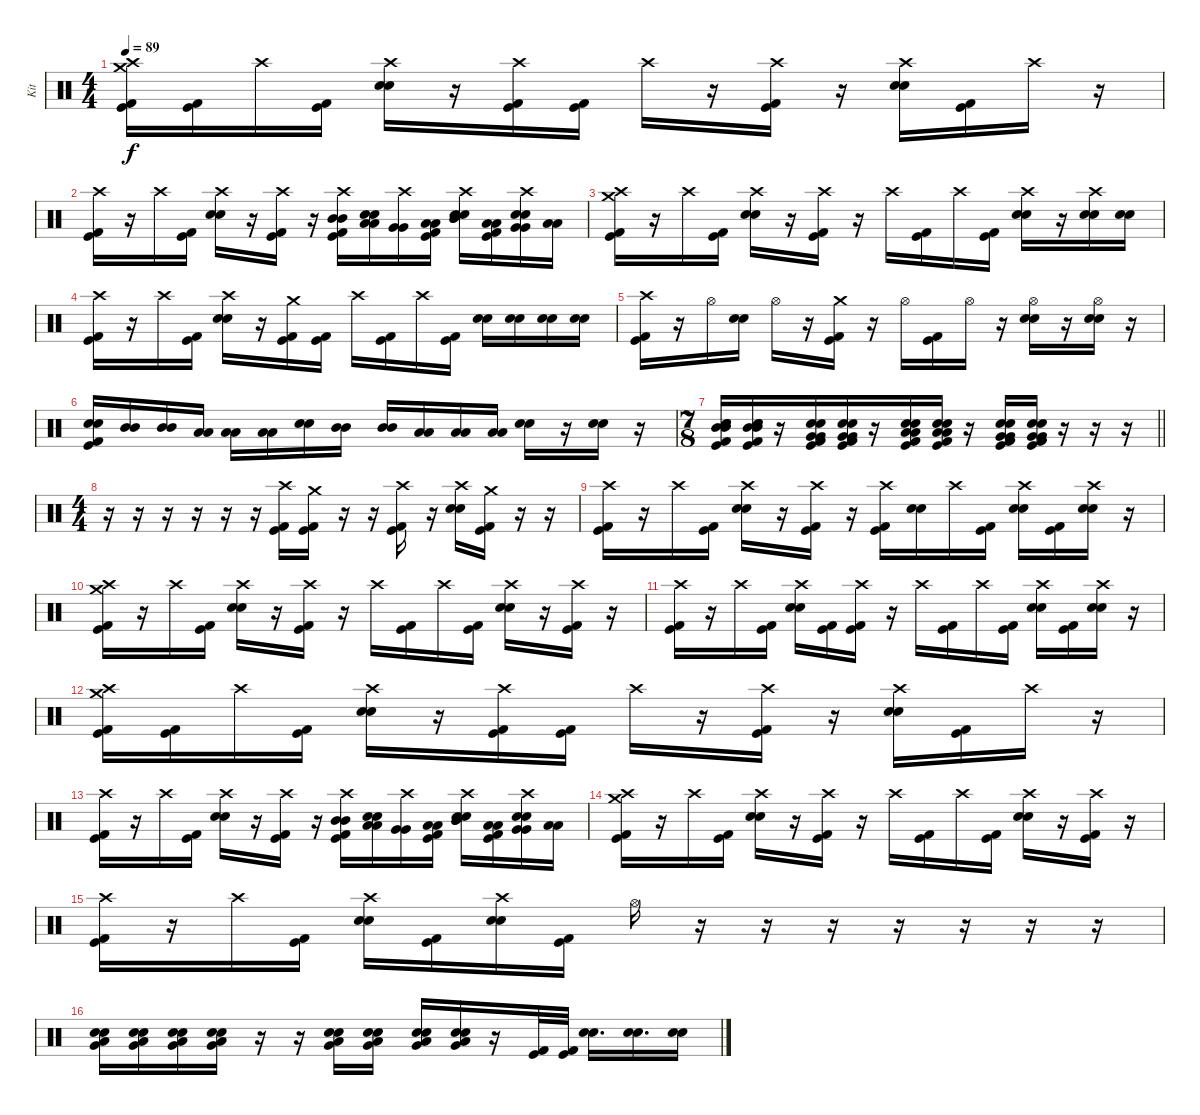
\track ("Kit" "Kit") {instrument percussion}
\staff {score}
\articulation defaults
\ts (4 4)
\tempo 89
\clef neutral
\ks c
("Crash high (hit)" "Crash medium (hit)" "Kick (hit) 2" "Kick (hit)").16{dy f} ("Kick (hit) 2" "Kick (hit)").16 "Crash high (hit)".16 ("Kick (hit) 2" "Kick (hit)").16 ("Crash high (hit)" "Electric Snare (hit)" "Snare (hit) 2").16 r.16 ("Crash high (hit)" "Kick (hit) 2" "Kick (hit)").16 ("Kick (hit) 2" "Kick (hit)").16 "Crash high (hit)".16 r.16 ("Crash high (hit)" "Kick (hit) 2" "Kick (hit)").16 r.16 ("Crash high (hit)" "Snare (hit) 2" "Electric Snare (hit)").16 ("Kick (hit) 2" "Kick (hit)").16 "Crash high (hit)".16 r.16 |
("Crash high (hit)" "Kick (hit) 2" "Kick (hit)").16 r.16 "Crash high (hit)".16 ("Kick (hit) 2" "Kick (hit)").16 ("Crash high (hit)" "Electric Snare (hit)" "Snare (hit) 2").16 r.16 ("Crash high (hit)" "Kick (hit) 2" "Kick (hit)").16 r.16 ("Crash high (hit)" "Mid Tom (hit)" "Mid Tom (hit)" "Kick (hit) 2" "Kick (hit)").16 ("Low Tom (hit)" "Low Tom (hit)" "Electric Snare (hit)" "Snare (hit) 2").16 ("Crash high (hit)" "Very Low Tom (hit)" "Very Low Tom (hit)").16 ("Low Floor Tom (hit)" "Low Floor Tom (hit)" "Kick (hit) 2" "Kick (hit)").16 ("Crash high (hit)" "Mid Tom (hit)" "Mid Tom (hit)" "Snare (hit) 2" "Electric Snare (hit)").16 ("Low Tom (hit)" "Low Tom (hit)" "Kick (hit) 2" "Kick (hit)").16 ("Crash high (hit)" "Very Low Tom (hit)" "Very Low Tom (hit)" "Electric Snare (hit)" "Snare (hit) 2").16 ("Low Floor Tom (hit)" "Low Floor Tom (hit)").16 |
("Crash high (hit)" "Crash medium (hit)" "Kick (hit) 2" "Kick (hit)").16 r.16 "Crash high (hit)".16 ("Kick (hit) 2" "Kick (hit)").16 ("Crash high (hit)" "Electric Snare (hit)" "Snare (hit) 2").16 r.16 ("Crash high (hit)" "Kick (hit) 2" "Kick (hit)").16 r.16 "Crash high (hit)".16 ("Kick (hit) 2" "Kick (hit)").16 "Crash high (hit)".16 ("Kick (hit) 2" "Kick (hit)").16 ("Crash high (hit)" "Snare (hit) 2" "Electric Snare (hit)").16 r.16 ("Crash high (hit)" "Snare (hit) 2" "Electric Snare (hit)").16 ("Snare (hit) 2" "Electric Snare (hit)").16 |
("Crash high (hit)" "Kick (hit) 2" "Kick (hit)").16 r.16 "Crash high (hit)".16 ("Kick (hit) 2" "Kick (hit)").16 ("Crash high (hit)" "Electric Snare (hit)" "Snare (hit) 2").16 r.16 ("Crash medium (hit)" "Kick (hit) 2" "Kick (hit)").16 ("Kick (hit) 2" "Kick (hit)").16 "Crash high (hit)".16 ("Kick (hit) 2" "Kick (hit)").16 "Crash high (hit)".16 ("Kick (hit) 2" "Kick (hit)").16 ("Snare (hit) 2" "Electric Snare (hit)").16 ("Snare (hit) 2" "Electric Snare (hit)").16 ("Snare (hit) 2" "Electric Snare (hit)").16 ("Snare (hit) 2" "Electric Snare (hit)").16 |
("Crash high (hit)" "Kick (hit) 2" "Kick (hit)").16 r.16 "Hi-Hat (open)".16 ("Snare (hit) 2" "Electric Snare (hit)").16 "Hi-Hat (open)".16 r.16 ("Crash medium (hit)" "Kick (hit) 2" "Kick (hit)").16 r.16 "Hi-Hat (open)".16 ("Kick (hit) 2" "Kick (hit)").16 "Hi-Hat (open)".16 r.16 ("Hi-Hat (open)" "Snare (hit) 2" "Electric Snare (hit)").16 r.16 ("Hi-Hat (open)" "Snare (hit) 2" "Electric Snare (hit)").16 r.16 |
("Electric Snare (hit)" "Snare (hit) 2" "Kick (hit) 2" "Kick (hit)").16 ("Mid Tom (hit)" "Mid Tom (hit)").16 ("Mid Tom (hit)" "Mid Tom (hit)").16 ("Low Tom (hit)" "Low Tom (hit)").16 ("Low Tom (hit)" "Low Tom (hit)").16 ("Low Tom (hit)" "Low Tom (hit)").16 ("Electric Snare (hit)" "Snare (hit) 2").16 ("Mid Tom (hit)" "Mid Tom (hit)").16 ("Mid Tom (hit)" "Mid Tom (hit)").16 ("Low Tom (hit)" "Low Tom (hit)").16 ("Low Tom (hit)" "Low Tom (hit)").16 ("Low Tom (hit)" "Low Tom (hit)").16 ("Snare (hit) 2" "Electric Snare (hit)").16 r.16 ("Snare (hit) 2" "Electric Snare (hit)").16 r.16 |
\ts (7 8)
\barLineRight lightlight
("Mid Tom (hit)" "Mid Tom (hit)" "Electric Snare (hit)" "Snare (hit) 2" "Kick (hit) 2" "Kick (hit)").16 ("Mid Tom (hit)" "Mid Tom (hit)" "Electric Snare (hit)" "Snare (hit) 2" "Kick (hit) 2" "Kick (hit)").16 r.16 ("Very Low Tom (hit)" "Very Low Tom (hit)" "Electric Snare (hit)" "Snare (hit) 2" "Kick (hit) 2" "Kick (hit)").16 ("Very Low Tom (hit)" "Very Low Tom (hit)" "Electric Snare (hit)" "Snare (hit) 2" "Kick (hit) 2" "Kick (hit)").16 r.16 ("Low Tom (hit)" "Low Tom (hit)" "Electric Snare (hit)" "Snare (hit) 2" "Kick (hit) 2" "Kick (hit)").16 ("Low Tom (hit)" "Low Tom (hit)" "Electric Snare (hit)" "Snare (hit) 2" "Kick (hit) 2" "Kick (hit)").16 r.16 ("Very Low Tom (hit)" "Very Low Tom (hit)" "Electric Snare (hit)" "Snare (hit) 2" "Kick (hit) 2" "Kick (hit)").16 ("Very Low Tom (hit)" "Very Low Tom (hit)" "Electric Snare (hit)" "Snare (hit) 2" "Kick (hit) 2" "Kick (hit)").16 r.16 r.16 r.16 |
\ts (4 4)
r.16 r.16 r.16 r.16 r.16 r.16 ("Crash high (hit)" "Kick (hit) 2" "Kick (hit)").16 ("Crash medium (hit)" "Kick (hit) 2" "Kick (hit)").16 r.16 r.16 ("Crash high (hit)" "Kick (hit) 2" "Kick (hit)").16 r.16 ("Crash high (hit)" "Snare (hit) 2" "Electric Snare (hit)").16 ("Crash medium (hit)" "Kick (hit) 2" "Kick (hit)").16 r.16 r.16 |
("Crash high (hit)" "Kick (hit) 2" "Kick (hit)").16 r.16 "Crash high (hit)".16 ("Kick (hit) 2" "Kick (hit)").16 ("Crash high (hit)" "Electric Snare (hit)" "Snare (hit) 2").16 r.16 ("Crash high (hit)" "Kick (hit) 2" "Kick (hit)").16 r.16 ("Crash high (hit)" "Kick (hit) 2" "Kick (hit)").16 ("Electric Snare (hit)" "Snare (hit) 2").16 "Crash high (hit)".16 ("Kick (hit) 2" "Kick (hit)").16 ("Crash high (hit)" "Snare (hit) 2" "Electric Snare (hit)").16 ("Kick (hit) 2" "Kick (hit)").16 ("Crash high (hit)" "Electric Snare (hit)" "Snare (hit) 2").16 r.16 |
("Crash high (hit)" "Crash medium (hit)" "Kick (hit) 2" "Kick (hit)").16 r.16 "Crash high (hit)".16 ("Kick (hit) 2" "Kick (hit)").16 ("Crash high (hit)" "Electric Snare (hit)" "Snare (hit) 2").16 r.16 ("Crash high (hit)" "Kick (hit) 2" "Kick (hit)").16 r.16 "Crash high (hit)".16 ("Kick (hit) 2" "Kick (hit)").16 "Crash high (hit)".16 ("Kick (hit) 2" "Kick (hit)").16 ("Crash high (hit)" "Snare (hit) 2" "Electric Snare (hit)").16 r.16 ("Crash high (hit)" "Kick (hit) 2" "Kick (hit)").16 r.16 |
("Crash high (hit)" "Kick (hit) 2" "Kick (hit)").16 r.16 "Crash high (hit)".16 ("Kick (hit) 2" "Kick (hit)").16 ("Crash high (hit)" "Electric Snare (hit)" "Snare (hit) 2").16 ("Kick (hit) 2" "Kick (hit)").16 ("Crash high (hit)" "Kick (hit) 2" "Kick (hit)").16 r.16 "Crash high (hit)".16 ("Kick (hit) 2" "Kick (hit)").16 "Crash high (hit)".16 ("Kick (hit) 2" "Kick (hit)").16 ("Crash high (hit)" "Snare (hit) 2" "Electric Snare (hit)").16 ("Kick (hit) 2" "Kick (hit)").16 ("Crash high (hit)" "Snare (hit) 2" "Electric Snare (hit)").16 r.16 |
("Crash high (hit)" "Crash medium (hit)" "Kick (hit) 2" "Kick (hit)").16 ("Kick (hit) 2" "Kick (hit)").16 "Crash high (hit)".16 ("Kick (hit) 2" "Kick (hit)").16 ("Crash high (hit)" "Electric Snare (hit)" "Snare (hit) 2").16 r.16 ("Crash high (hit)" "Kick (hit) 2" "Kick (hit)").16 ("Kick (hit) 2" "Kick (hit)").16 "Crash high (hit)".16 r.16 ("Crash high (hit)" "Kick (hit) 2" "Kick (hit)").16 r.16 ("Crash high (hit)" "Snare (hit) 2" "Electric Snare (hit)").16 ("Kick (hit) 2" "Kick (hit)").16 "Crash high (hit)".16 r.16 |
("Crash high (hit)" "Kick (hit) 2" "Kick (hit)").16 r.16 "Crash high (hit)".16 ("Kick (hit) 2" "Kick (hit)").16 ("Crash high (hit)" "Electric Snare (hit)" "Snare (hit) 2").16 r.16 ("Crash high (hit)" "Kick (hit) 2" "Kick (hit)").16 r.16 ("Crash high (hit)" "Mid Tom (hit)" "Mid Tom (hit)" "Kick (hit) 2" "Kick (hit)").16 ("Low Tom (hit)" "Low Tom (hit)" "Electric Snare (hit)" "Snare (hit) 2").16 ("Crash high (hit)" "Very Low Tom (hit)" "Very Low Tom (hit)").16 ("Low Floor Tom (hit)" "Low Floor Tom (hit)" "Kick (hit) 2" "Kick (hit)").16 ("Crash high (hit)" "Mid Tom (hit)" "Mid Tom (hit)" "Snare (hit) 2" "Electric Snare (hit)").16 ("Low Tom (hit)" "Low Tom (hit)" "Kick (hit) 2" "Kick (hit)").16 ("Crash high (hit)" "Very Low Tom (hit)" "Very Low Tom (hit)" "Electric Snare (hit)" "Snare (hit) 2").16 ("Low Floor Tom (hit)" "Low Floor Tom (hit)").16 |
("Crash high (hit)" "Crash medium (hit)" "Kick (hit) 2" "Kick (hit)").16 r.16 "Crash high (hit)".16 ("Kick (hit) 2" "Kick (hit)").16 ("Crash high (hit)" "Electric Snare (hit)" "Snare (hit) 2").16 r.16 ("Crash high (hit)" "Kick (hit) 2" "Kick (hit)").16 r.16 "Crash high (hit)".16 ("Kick (hit) 2" "Kick (hit)").16 "Crash high (hit)".16 ("Kick (hit) 2" "Kick (hit)").16 ("Crash high (hit)" "Snare (hit) 2" "Electric Snare (hit)").16 r.16 ("Crash high (hit)" "Kick (hit) 2" "Kick (hit)").16 r.16 |
("Crash high (hit)" "Kick (hit) 2" "Kick (hit)").16 r.16 "Crash high (hit)".16 ("Kick (hit) 2" "Kick (hit)").16 ("Crash high (hit)" "Electric Snare (hit)" "Snare (hit) 2").16 ("Kick (hit) 2" "Kick (hit)").16 ("Crash high (hit)" "Electric Snare (hit)" "Snare (hit) 2").16 ("Kick (hit) 2" "Kick (hit)").16 "Hi-Hat (open)".16 r.16 r.16 r.16 r.16 r.16 r.16 r.16 |
("Electric Snare (hit)" "Snare (hit) 2" "Very Low Tom (hit)" "Low Floor Tom (hit)").16 ("Electric Snare (hit)" "Snare (hit) 2" "Very Low Tom (hit)" "Low Floor Tom (hit)").16 ("Electric Snare (hit)" "Snare (hit) 2" "Very Low Tom (hit)" "Low Floor Tom (hit)").16 ("Electric Snare (hit)" "Snare (hit) 2" "Very Low Tom (hit)" "Low Floor Tom (hit)").16 r.16 r.16 ("Electric Snare (hit)" "Snare (hit) 2" "Very Low Tom (hit)" "Low Floor Tom (hit)").16 ("Electric Snare (hit)" "Snare (hit) 2" "Very Low Tom (hit)" "Low Floor Tom (hit)").16 ("Electric Snare (hit)" "Snare (hit) 2" "Very Low Tom (hit)" "Low Floor Tom (hit)").16 ("Electric Snare (hit)" "Snare (hit) 2" "Very Low Tom (hit)" "Low Floor Tom (hit)").16 r.16 ("Kick (hit) 2" "Kick (hit)").32 ("Kick (hit) 2" "Kick (hit)").32 ("Electric Snare (hit)" "Snare (hit) 2").16{d} ("Electric Snare (hit)" "Snare (hit) 2").16{d} ("Electric Snare (hit)" "Snare (hit) 2").16
